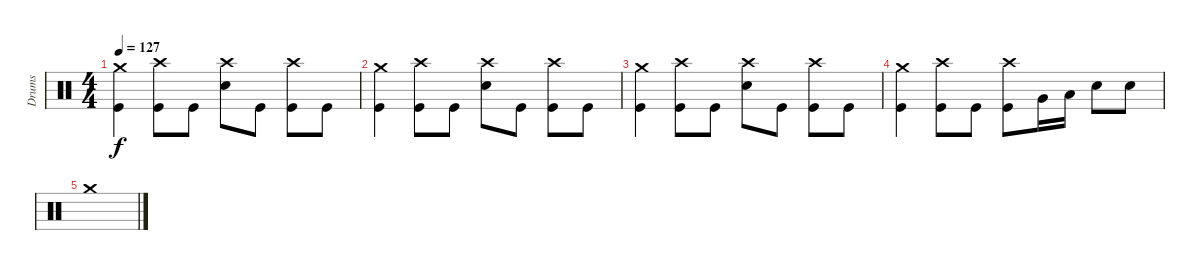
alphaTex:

\track ("Drums" "Drums") {instrument percussion}
\staff {score}
\articulation defaults
\ts (4 4)
\tempo 127
\clef neutral
\ks c
("Kick (hit)" "Crash medium (hit)").4{dy f} ("Kick (hit)" "Crash high (hit)").8 "Kick (hit)".8 ("Snare (hit) 2" "Crash high (hit)").8 "Kick (hit)".8 ("Kick (hit)" "Crash high (hit)").8 "Kick (hit)".8 |
("Kick (hit)" "Crash medium (hit)").4 ("Kick (hit)" "Crash high (hit)").8 "Kick (hit)".8 ("Snare (hit) 2" "Crash high (hit)").8 "Kick (hit)".8 ("Kick (hit)" "Crash high (hit)").8 "Kick (hit)".8 |
("Kick (hit)" "Crash medium (hit)").4 ("Kick (hit)" "Crash high (hit)").8 "Kick (hit)".8 ("Snare (hit) 2" "Crash high (hit)").8 "Kick (hit)".8 ("Kick (hit)" "Crash high (hit)").8 "Kick (hit)".8 |
("Kick (hit)" "Crash medium (hit)").4 ("Kick (hit)" "Crash high (hit)").8 "Kick (hit)".8 ("Kick (hit)" "Crash high (hit)").8 "Very Low Tom (hit)".16 "Low Floor Tom (hit)".16 "Snare (hit) 2".8 "Snare (hit) 2".8 |
"Crash medium (hit)".1
